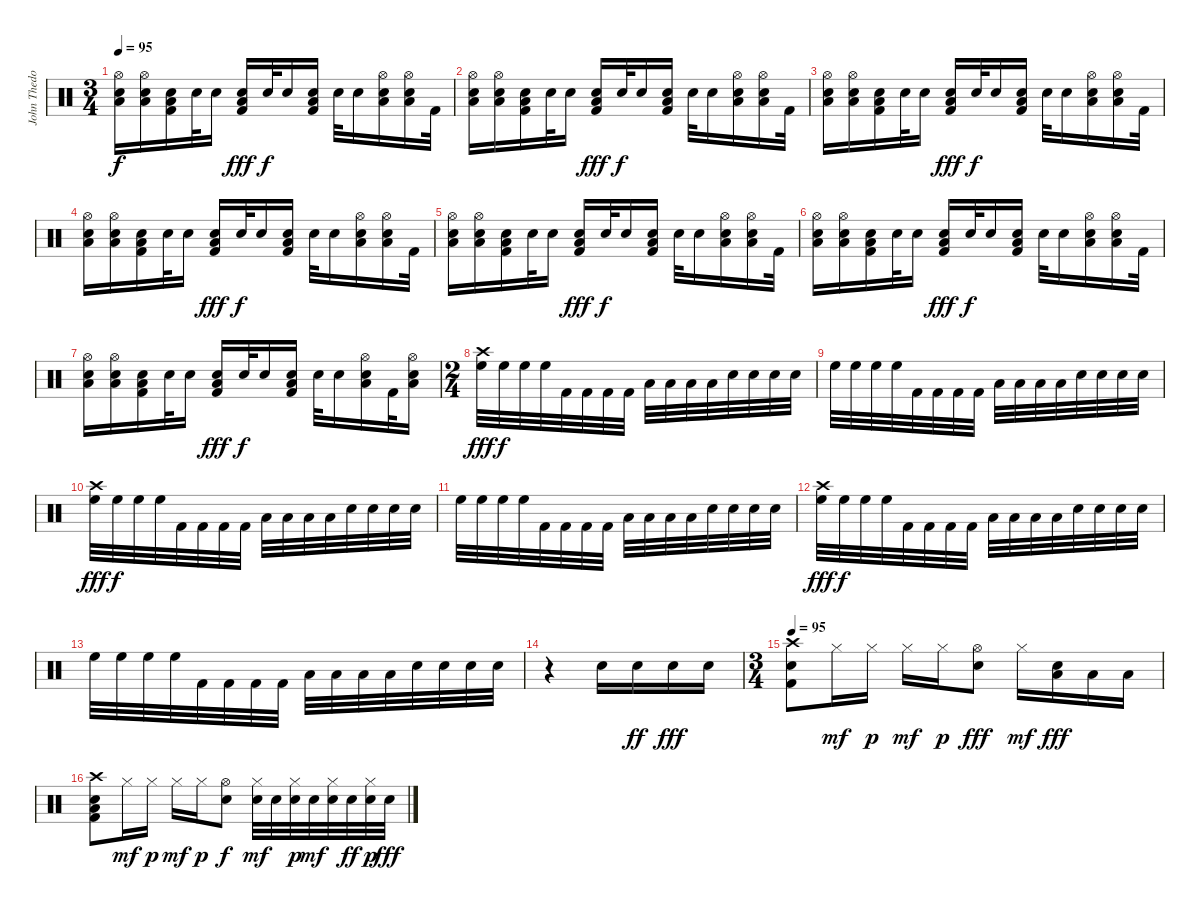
\track ("John Thedore" "John Thedo") {instrument percussion}
\staff {score}
\articulation defaults
\ts (3 4)
\tempo 95
\clef neutral
\ks c
("Electric Snare (hit)" "Low Tom (hit)" "Hi-Hat (open)").16{dy f} ("Electric Snare (hit)" "Low Tom (hit)" "Hi-Hat (open)").16 ("Electric Snare (hit)" "Kick (hit) 2" "Low Tom (hit)").16 "Electric Snare (hit)".32 "Electric Snare (hit)".16 ("Electric Snare (hit)" "Kick (hit) 2" "Low Tom (hit)").16{dy fff} "Electric Snare (hit)".32{dy f} "Electric Snare (hit)".16 ("Electric Snare (hit)" "Kick (hit) 2" "Low Tom (hit)").16 "Electric Snare (hit)".32 "Electric Snare (hit)".16 ("Electric Snare (hit)" "Low Tom (hit)" "Hi-Hat (open)").16 ("Electric Snare (hit)" "Low Tom (hit)" "Hi-Hat (open)").16 "Kick (hit) 2".32 |
("Electric Snare (hit)" "Low Tom (hit)" "Hi-Hat (open)").16 ("Electric Snare (hit)" "Low Tom (hit)" "Hi-Hat (open)").16 ("Electric Snare (hit)" "Kick (hit) 2" "Low Tom (hit)").16 "Electric Snare (hit)".32 "Electric Snare (hit)".16 ("Electric Snare (hit)" "Kick (hit) 2" "Low Tom (hit)").16{dy fff} "Electric Snare (hit)".32{dy f} "Electric Snare (hit)".16 ("Electric Snare (hit)" "Kick (hit) 2" "Low Tom (hit)").16 "Electric Snare (hit)".32 "Electric Snare (hit)".16 ("Electric Snare (hit)" "Low Tom (hit)" "Hi-Hat (open)").16 ("Electric Snare (hit)" "Low Tom (hit)" "Hi-Hat (open)").16 "Kick (hit) 2".32 |
("Electric Snare (hit)" "Low Tom (hit)" "Hi-Hat (open)").16 ("Electric Snare (hit)" "Low Tom (hit)" "Hi-Hat (open)").16 ("Electric Snare (hit)" "Kick (hit) 2" "Low Tom (hit)").16 "Electric Snare (hit)".32 "Electric Snare (hit)".16 ("Electric Snare (hit)" "Kick (hit) 2" "Low Tom (hit)").16{dy fff} "Electric Snare (hit)".32{dy f} "Electric Snare (hit)".16 ("Electric Snare (hit)" "Kick (hit) 2" "Low Tom (hit)").16 "Electric Snare (hit)".32 "Electric Snare (hit)".16 ("Electric Snare (hit)" "Low Tom (hit)" "Hi-Hat (open)").16 ("Electric Snare (hit)" "Low Tom (hit)" "Hi-Hat (open)").16 "Kick (hit) 2".32 |
("Electric Snare (hit)" "Low Tom (hit)" "Hi-Hat (open)").16 ("Electric Snare (hit)" "Low Tom (hit)" "Hi-Hat (open)").16 ("Electric Snare (hit)" "Kick (hit) 2" "Low Tom (hit)").16 "Electric Snare (hit)".32 "Electric Snare (hit)".16 ("Electric Snare (hit)" "Kick (hit) 2" "Low Tom (hit)").16{dy fff} "Electric Snare (hit)".32{dy f} "Electric Snare (hit)".16 ("Electric Snare (hit)" "Kick (hit) 2" "Low Tom (hit)").16 "Electric Snare (hit)".32 "Electric Snare (hit)".16 ("Electric Snare (hit)" "Low Tom (hit)" "Hi-Hat (open)").16 ("Electric Snare (hit)" "Low Tom (hit)" "Hi-Hat (open)").16 "Kick (hit) 2".32 |
("Electric Snare (hit)" "Low Tom (hit)" "Hi-Hat (open)").16 ("Electric Snare (hit)" "Low Tom (hit)" "Hi-Hat (open)").16 ("Electric Snare (hit)" "Kick (hit) 2" "Low Tom (hit)").16 "Electric Snare (hit)".32 "Electric Snare (hit)".16 ("Electric Snare (hit)" "Kick (hit) 2" "Low Tom (hit)").16{dy fff} "Electric Snare (hit)".32{dy f} "Electric Snare (hit)".16 ("Electric Snare (hit)" "Kick (hit) 2" "Low Tom (hit)").16 "Electric Snare (hit)".32 "Electric Snare (hit)".16 ("Electric Snare (hit)" "Low Tom (hit)" "Hi-Hat (open)").16 ("Electric Snare (hit)" "Low Tom (hit)" "Hi-Hat (open)").16 "Kick (hit) 2".32 |
("Electric Snare (hit)" "Low Tom (hit)" "Hi-Hat (open)").16 ("Electric Snare (hit)" "Low Tom (hit)" "Hi-Hat (open)").16 ("Electric Snare (hit)" "Kick (hit) 2" "Low Tom (hit)").16 "Electric Snare (hit)".32 "Electric Snare (hit)".16 ("Electric Snare (hit)" "Kick (hit) 2" "Low Tom (hit)").16{dy fff} "Electric Snare (hit)".32{dy f} "Electric Snare (hit)".16 ("Electric Snare (hit)" "Kick (hit) 2" "Low Tom (hit)").16 "Electric Snare (hit)".32 "Electric Snare (hit)".16 ("Electric Snare (hit)" "Low Tom (hit)" "Hi-Hat (open)").16 ("Electric Snare (hit)" "Low Tom (hit)" "Hi-Hat (open)").16 "Kick (hit) 2".32 |
("Electric Snare (hit)" "Low Tom (hit)" "Hi-Hat (open)").16 ("Electric Snare (hit)" "Low Tom (hit)" "Hi-Hat (open)").16 ("Electric Snare (hit)" "Kick (hit) 2" "Low Tom (hit)").16 "Electric Snare (hit)".32 "Electric Snare (hit)".16 ("Electric Snare (hit)" "Kick (hit) 2" "Low Tom (hit)").16{dy fff} "Electric Snare (hit)".32{dy f} "Electric Snare (hit)".16 ("Electric Snare (hit)" "Kick (hit) 2" "Low Tom (hit)").16 "Electric Snare (hit)".32 "Electric Snare (hit)".16 ("Electric Snare (hit)" "Low Tom (hit)" "Hi-Hat (open)").16 "Kick (hit) 2".32 ("Electric Snare (hit)" "Low Tom (hit)" "Hi-Hat (open)").16 |
\ts (2 4)
("Crash high (hit)" "High Floor Tom (hit)").32{dy fff} "High Floor Tom (hit)".32{dy f} "High Floor Tom (hit)".32 "High Floor Tom (hit)".32 "Kick (hit) 2".32 "Kick (hit) 2".32 "Kick (hit) 2".32 "Kick (hit) 2".32 "Low Tom (hit)".32 "Low Tom (hit)".32 "Low Tom (hit)".32 "Low Tom (hit)".32 "Electric Snare (hit)".32 "Electric Snare (hit)".32 "Electric Snare (hit)".32 "Electric Snare (hit)".32 |
"High Floor Tom (hit)".32 "High Floor Tom (hit)".32 "High Floor Tom (hit)".32 "High Floor Tom (hit)".32 "Kick (hit) 2".32 "Kick (hit) 2".32 "Kick (hit) 2".32 "Kick (hit) 2".32 "Low Tom (hit)".32 "Low Tom (hit)".32 "Low Tom (hit)".32 "Low Tom (hit)".32 "Electric Snare (hit)".32 "Electric Snare (hit)".32 "Electric Snare (hit)".32 "Electric Snare (hit)".32 |
("Crash high (hit)" "High Floor Tom (hit)").32{dy fff} "High Floor Tom (hit)".32{dy f} "High Floor Tom (hit)".32 "High Floor Tom (hit)".32 "Kick (hit) 2".32 "Kick (hit) 2".32 "Kick (hit) 2".32 "Kick (hit) 2".32 "Low Tom (hit)".32 "Low Tom (hit)".32 "Low Tom (hit)".32 "Low Tom (hit)".32 "Electric Snare (hit)".32 "Electric Snare (hit)".32 "Electric Snare (hit)".32 "Electric Snare (hit)".32 |
"High Floor Tom (hit)".32 "High Floor Tom (hit)".32 "High Floor Tom (hit)".32 "High Floor Tom (hit)".32 "Kick (hit) 2".32 "Kick (hit) 2".32 "Kick (hit) 2".32 "Kick (hit) 2".32 "Low Tom (hit)".32 "Low Tom (hit)".32 "Low Tom (hit)".32 "Low Tom (hit)".32 "Electric Snare (hit)".32 "Electric Snare (hit)".32 "Electric Snare (hit)".32 "Electric Snare (hit)".32 |
("Crash high (hit)" "High Floor Tom (hit)").32{dy fff} "High Floor Tom (hit)".32{dy f} "High Floor Tom (hit)".32 "High Floor Tom (hit)".32 "Kick (hit) 2".32 "Kick (hit) 2".32 "Kick (hit) 2".32 "Kick (hit) 2".32 "Low Tom (hit)".32 "Low Tom (hit)".32 "Low Tom (hit)".32 "Low Tom (hit)".32 "Electric Snare (hit)".32 "Electric Snare (hit)".32 "Electric Snare (hit)".32 "Electric Snare (hit)".32 |
"High Floor Tom (hit)".32 "High Floor Tom (hit)".32 "High Floor Tom (hit)".32 "High Floor Tom (hit)".32 "Kick (hit) 2".32 "Kick (hit) 2".32 "Kick (hit) 2".32 "Kick (hit) 2".32 "Low Tom (hit)".32 "Low Tom (hit)".32 "Low Tom (hit)".32 "Low Tom (hit)".32 "Electric Snare (hit)".32 "Electric Snare (hit)".32 "Electric Snare (hit)".32 "Electric Snare (hit)".32 |
r.4 "Electric Snare (hit)".16 "Electric Snare (hit)".16{dy ff} "Electric Snare (hit)".16{dy fff} "Electric Snare (hit)".16 |
\ts (3 4)
\tempo 95
("Kick (hit) 2" "Crash high (hit)" "Electric Snare (hit)").8 "Hi-Hat (closed)".16{dy mf} "Hi-Hat (closed)".16{dy p} "Hi-Hat (closed)".16{dy mf} "Hi-Hat (closed)".16{dy p} ("Hi-Hat (open)" "Electric Snare (hit)").8{dy fff} "Hi-Hat (closed)".16{dy mf} ("Low Tom (hit)" "Electric Snare (hit)").16{dy fff} "Low Tom (hit)".16 "Low Tom (hit)".16 |
("Low Tom (hit)" "Kick (hit) 2" "Crash high (hit)" "Electric Snare (hit)").8 "Hi-Hat (closed)".16{dy mf} "Hi-Hat (closed)".16{dy p} "Hi-Hat (closed)".16{dy mf} "Hi-Hat (closed)".16{dy p} ("Hi-Hat (open)" "Electric Snare (hit)").8{dy f} ("Electric Snare (hit)" "Hi-Hat (closed)").32{dy mf} "Electric Snare (hit)".32 ("Electric Snare (hit)" "Hi-Hat (closed)").32{dy p} "Electric Snare (hit)".32{dy mf} ("Electric Snare (hit)" "Hi-Hat (closed)").32 "Electric Snare (hit)".32{dy ff} ("Electric Snare (hit)" "Hi-Hat (closed)").32{dy p} "Electric Snare (hit)".32{dy fff}
